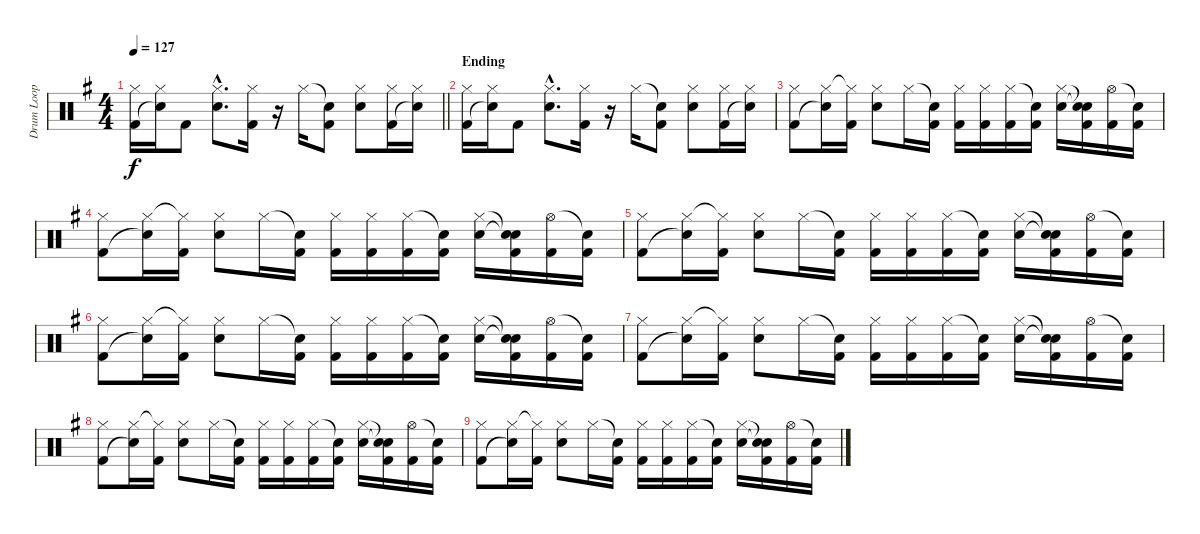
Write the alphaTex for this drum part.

\track ("Drum Loop" "Drum Loop") {instrument percussion}
\staff {score}
\articulation defaults
\ts (4 4)
\tempo 127
\clef neutral
\barLineRight lightlight
\ks eminor
("Hi-Hat (closed)" "Kick (hit) 2").16{dy f} ("Hi-Hat (closed)" "Snare (hit)"{t}).16 "Kick (hit) 2".8 ("Hi-Hat (closed)"{hac} "Electric Snare (hit)"{hac}).8{d} ("Hi-Hat (closed)" "Kick (hit) 2").16 r.16 "Hi-Hat (closed)".16 ("Snare (hit)"{t} "Kick (hit) 2").8 ("Hi-Hat (closed)" "Electric Snare (hit)").8 ("Hi-Hat (closed)" "Kick (hit) 2").16 ("Hi-Hat (closed)" "Snare (hit)"{t}).16 |
\section ("" "Ending")
("Hi-Hat (closed)" "Kick (hit) 2").16 ("Hi-Hat (closed)" "Snare (hit)"{t}).16 "Kick (hit) 2".8 ("Hi-Hat (closed)"{hac} "Electric Snare (hit)"{hac}).8{d} ("Hi-Hat (closed)" "Kick (hit) 2").16 r.16 "Hi-Hat (closed)".16 ("Snare (hit)"{t} "Kick (hit) 2").8 ("Hi-Hat (closed)" "Electric Snare (hit)").8 ("Hi-Hat (closed)" "Kick (hit) 2").16 ("Hi-Hat (closed)" "Snare (hit)"{t}).16 |
("Hi-Hat (closed)" "Kick (hit) 2").8 ("Hi-Hat (closed)" "Snare (hit)"{t}).16 ("Hi-Hat (closed)"{t} "Kick (hit) 2").16 ("Hi-Hat (closed)" "Electric Snare (hit)").8 "Hi-Hat (closed)".16 ("Snare (hit)"{t} "Kick (hit) 2").16 ("Hi-Hat (closed)" "Kick (hit) 2").16 ("Hi-Hat (closed)" "Kick (hit) 2").16 ("Hi-Hat (closed)" "Kick (hit) 2").16 ("Snare (hit)"{t} "Kick (hit) 2").16 ("Hi-Hat (closed)" "Electric Snare (hit)").16 ("Snare (hit)"{t} "Snare (hit)"{t} "Kick (hit) 2").16 ("Hi-Hat (open)" "Kick (hit) 2").16 ("Snare (hit)"{t} "Kick (hit) 2").16 |
("Hi-Hat (closed)" "Kick (hit) 2").8 ("Hi-Hat (closed)" "Snare (hit)"{t}).16 ("Hi-Hat (closed)"{t} "Kick (hit) 2").16 ("Hi-Hat (closed)" "Electric Snare (hit)").8 "Hi-Hat (closed)".16 ("Snare (hit)"{t} "Kick (hit) 2").16 ("Hi-Hat (closed)" "Kick (hit) 2").16 ("Hi-Hat (closed)" "Kick (hit) 2").16 ("Hi-Hat (closed)" "Kick (hit) 2").16 ("Snare (hit)"{t} "Kick (hit) 2").16 ("Hi-Hat (closed)" "Electric Snare (hit)").16 ("Snare (hit)"{t} "Snare (hit)"{t} "Kick (hit) 2").16 ("Hi-Hat (open)" "Kick (hit) 2").16 ("Snare (hit)"{t} "Kick (hit) 2").16 |
("Hi-Hat (closed)" "Kick (hit) 2").8 ("Hi-Hat (closed)" "Snare (hit)"{t}).16 ("Hi-Hat (closed)"{t} "Kick (hit) 2").16 ("Hi-Hat (closed)" "Electric Snare (hit)").8 "Hi-Hat (closed)".16 ("Snare (hit)"{t} "Kick (hit) 2").16 ("Hi-Hat (closed)" "Kick (hit) 2").16 ("Hi-Hat (closed)" "Kick (hit) 2").16 ("Hi-Hat (closed)" "Kick (hit) 2").16 ("Snare (hit)"{t} "Kick (hit) 2").16 ("Hi-Hat (closed)" "Electric Snare (hit)").16 ("Snare (hit)"{t} "Snare (hit)"{t} "Kick (hit) 2").16 ("Hi-Hat (open)" "Kick (hit) 2").16 ("Snare (hit)"{t} "Kick (hit) 2").16 |
("Hi-Hat (closed)" "Kick (hit) 2").8 ("Hi-Hat (closed)" "Snare (hit)"{t}).16 ("Hi-Hat (closed)"{t} "Kick (hit) 2").16 ("Hi-Hat (closed)" "Electric Snare (hit)").8 "Hi-Hat (closed)".16 ("Snare (hit)"{t} "Kick (hit) 2").16 ("Hi-Hat (closed)" "Kick (hit) 2").16 ("Hi-Hat (closed)" "Kick (hit) 2").16 ("Hi-Hat (closed)" "Kick (hit) 2").16 ("Snare (hit)"{t} "Kick (hit) 2").16 ("Hi-Hat (closed)" "Electric Snare (hit)").16 ("Snare (hit)"{t} "Snare (hit)"{t} "Kick (hit) 2").16 ("Hi-Hat (open)" "Kick (hit) 2").16 ("Snare (hit)"{t} "Kick (hit) 2").16 |
("Hi-Hat (closed)" "Kick (hit) 2").8 ("Hi-Hat (closed)" "Snare (hit)"{t}).16 ("Hi-Hat (closed)"{t} "Kick (hit) 2").16 ("Hi-Hat (closed)" "Electric Snare (hit)").8 "Hi-Hat (closed)".16 ("Snare (hit)"{t} "Kick (hit) 2").16 ("Hi-Hat (closed)" "Kick (hit) 2").16 ("Hi-Hat (closed)" "Kick (hit) 2").16 ("Hi-Hat (closed)" "Kick (hit) 2").16 ("Snare (hit)"{t} "Kick (hit) 2").16 ("Hi-Hat (closed)" "Electric Snare (hit)").16 ("Snare (hit)"{t} "Snare (hit)"{t} "Kick (hit) 2").16 ("Hi-Hat (open)" "Kick (hit) 2").16 ("Snare (hit)"{t} "Kick (hit) 2").16 |
("Hi-Hat (closed)" "Kick (hit) 2").8 ("Hi-Hat (closed)" "Snare (hit)"{t}).16 ("Hi-Hat (closed)"{t} "Kick (hit) 2").16 ("Hi-Hat (closed)" "Electric Snare (hit)").8 "Hi-Hat (closed)".16 ("Snare (hit)"{t} "Kick (hit) 2").16 ("Hi-Hat (closed)" "Kick (hit) 2").16 ("Hi-Hat (closed)" "Kick (hit) 2").16 ("Hi-Hat (closed)" "Kick (hit) 2").16 ("Snare (hit)"{t} "Kick (hit) 2").16 ("Hi-Hat (closed)" "Electric Snare (hit)").16 ("Snare (hit)"{t} "Snare (hit)"{t} "Kick (hit) 2").16 ("Hi-Hat (open)" "Kick (hit) 2").16 ("Snare (hit)"{t} "Kick (hit) 2").16 |
("Hi-Hat (closed)" "Kick (hit) 2").8 ("Hi-Hat (closed)" "Snare (hit)"{t}).16 ("Hi-Hat (closed)"{t} "Kick (hit) 2").16 ("Hi-Hat (closed)" "Electric Snare (hit)").8 "Hi-Hat (closed)".16 ("Snare (hit)"{t} "Kick (hit) 2").16 ("Hi-Hat (closed)" "Kick (hit) 2").16 ("Hi-Hat (closed)" "Kick (hit) 2").16 ("Hi-Hat (closed)" "Kick (hit) 2").16 ("Snare (hit)"{t} "Kick (hit) 2").16 ("Hi-Hat (closed)" "Electric Snare (hit)").16 ("Snare (hit)"{t} "Snare (hit)"{t} "Kick (hit) 2").16 ("Hi-Hat (open)" "Kick (hit) 2").16 ("Snare (hit)"{t} "Kick (hit) 2").16
